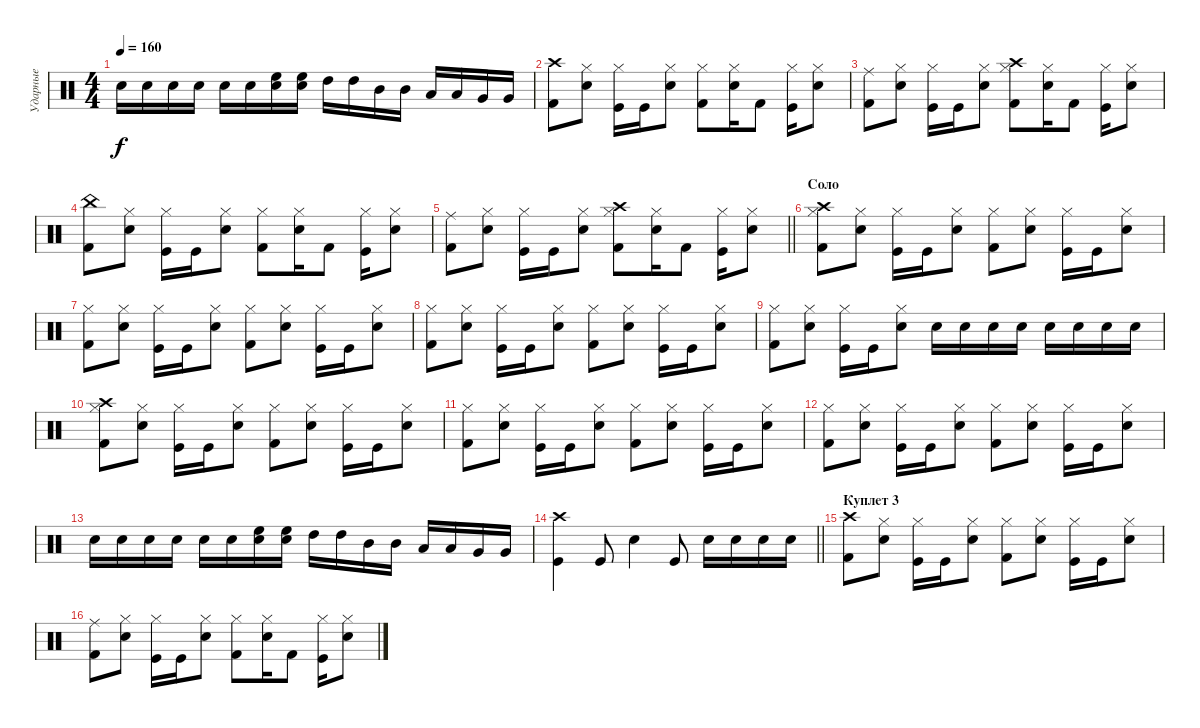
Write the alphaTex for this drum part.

\track ("Ударные" "Ударные") {instrument percussion}
\staff {score}
\articulation defaults
\ts (4 4)
\tempo 160
\clef neutral
\ks c "Snare (hit) 2".16{dy f} "Snare (hit) 2".16 "Snare (hit) 2".16 "Snare (hit) 2".16 "Snare (hit) 2".16 "Snare (hit) 2".16
("High Floor Tom (hit)" "Snare (hit) 2").16 ("High Floor Tom (hit)" "Snare (hit) 2").16 "High Tom (hit)".16 "High Tom (hit)".16 "Mid Tom (hit)".16 "Mid Tom (hit)".16 "Low Tom (hit)".16 "Low Tom (hit)".16 "Very Low Tom (hit)".16 "Very Low Tom (hit)".16 |
("Crash high (hit)" "Kick (hit) 2").8 ("Hi-Hat (closed)" "Snare (hit) 2").8 ("Hi-Hat (closed)" "Kick (hit)").16 "Kick (hit)".16 ("Hi-Hat (closed)" "Snare (hit) 2").8 ("Hi-Hat (closed)" "Kick (hit) 2").8 ("Hi-Hat (closed)" "Snare (hit) 2").16 "Kick (hit) 2".8 ("Hi-Hat (closed)" "Kick (hit)").16 ("Hi-Hat (closed)" "Snare (hit) 2").8 |
("Ride (middle)" "Kick (hit) 2").8 ("Hi-Hat (closed)" "Snare (hit) 2").8 ("Hi-Hat (closed)" "Kick (hit)").16 "Kick (hit)".16 ("Hi-Hat (closed)" "Snare (hit) 2").8 ("Crash high (hit)" "Hi-Hat (closed)" "Kick (hit) 2").8 ("Hi-Hat (closed)" "Snare (hit) 2").16 "Kick (hit) 2".8 ("Hi-Hat (closed)" "Kick (hit)").16 ("Hi-Hat (closed)" "Snare (hit) 2").8 |
("China (hit)" "Kick (hit) 2").8 ("Hi-Hat (closed)" "Snare (hit) 2").8 ("Hi-Hat (closed)" "Kick (hit)").16 "Kick (hit)".16 ("Hi-Hat (closed)" "Snare (hit) 2").8 ("Hi-Hat (closed)" "Kick (hit) 2").8 ("Hi-Hat (closed)" "Snare (hit) 2").16 "Kick (hit) 2".8 ("Hi-Hat (closed)" "Kick (hit)").16 ("Hi-Hat (closed)" "Snare (hit) 2").8 |
\barLineRight lightlight
("Ride (middle)" "Kick (hit) 2").8 ("Hi-Hat (closed)" "Snare (hit) 2").8 ("Hi-Hat (closed)" "Kick (hit)").16 "Kick (hit)".16 ("Hi-Hat (closed)" "Snare (hit) 2").8 ("Crash high (hit)" "Hi-Hat (closed)" "Kick (hit) 2").8 ("Hi-Hat (closed)" "Snare (hit) 2").16 "Kick (hit) 2".8 ("Hi-Hat (closed)" "Kick (hit)").16 ("Hi-Hat (closed)" "Snare (hit) 2").8 |
\section ("" "Соло")
("Crash high (hit)" "Hi-Hat (closed)" "Kick (hit) 2").8 ("Hi-Hat (closed)" "Snare (hit) 2").8 ("Hi-Hat (closed)" "Kick (hit)").16 "Kick (hit)".16 ("Hi-Hat (closed)" "Snare (hit) 2").8 ("Hi-Hat (closed)" "Kick (hit) 2").8 ("Hi-Hat (closed)" "Snare (hit) 2").8 ("Hi-Hat (closed)" "Kick (hit)").16 "Kick (hit)".16 ("Hi-Hat (closed)" "Snare (hit) 2").8 |
("Hi-Hat (closed)" "Kick (hit) 2").8 ("Hi-Hat (closed)" "Snare (hit) 2").8 ("Hi-Hat (closed)" "Kick (hit)").16 "Kick (hit)".16 ("Hi-Hat (closed)" "Snare (hit) 2").8 ("Hi-Hat (closed)" "Kick (hit) 2").8 ("Hi-Hat (closed)" "Snare (hit) 2").8 ("Hi-Hat (closed)" "Kick (hit)").16 "Kick (hit)".16 ("Hi-Hat (closed)" "Snare (hit) 2").8 |
("Hi-Hat (closed)" "Kick (hit) 2").8 ("Hi-Hat (closed)" "Snare (hit) 2").8 ("Hi-Hat (closed)" "Kick (hit)").16 "Kick (hit)".16 ("Hi-Hat (closed)" "Snare (hit) 2").8 ("Hi-Hat (closed)" "Kick (hit) 2").8 ("Hi-Hat (closed)" "Snare (hit) 2").8 ("Hi-Hat (closed)" "Kick (hit)").16 "Kick (hit)".16 ("Hi-Hat (closed)" "Snare (hit) 2").8 |
("Hi-Hat (closed)" "Kick (hit) 2").8 ("Hi-Hat (closed)" "Snare (hit) 2").8 ("Hi-Hat (closed)" "Kick (hit)").16 "Kick (hit)".16 ("Hi-Hat (closed)" "Snare (hit) 2").8 "Snare (hit) 2".16 "Snare (hit) 2".16 "Snare (hit) 2".16 "Snare (hit) 2".16 "Snare (hit) 2".16 "Snare (hit) 2".16 "Snare (hit) 2".16 "Snare (hit) 2".16 |
("Crash high (hit)" "Hi-Hat (closed)" "Kick (hit) 2").8 ("Hi-Hat (closed)" "Snare (hit) 2").8 ("Hi-Hat (closed)" "Kick (hit)").16 "Kick (hit)".16 ("Hi-Hat (closed)" "Snare (hit) 2").8 ("Hi-Hat (closed)" "Kick (hit) 2").8 ("Hi-Hat (closed)" "Snare (hit) 2").8 ("Hi-Hat (closed)" "Kick (hit)").16 "Kick (hit)".16 ("Hi-Hat (closed)" "Snare (hit) 2").8 |
("Hi-Hat (closed)" "Kick (hit) 2").8 ("Hi-Hat (closed)" "Snare (hit) 2").8 ("Hi-Hat (closed)" "Kick (hit)").16 "Kick (hit)".16 ("Hi-Hat (closed)" "Snare (hit) 2").8 ("Hi-Hat (closed)" "Kick (hit) 2").8 ("Hi-Hat (closed)" "Snare (hit) 2").8 ("Hi-Hat (closed)" "Kick (hit)").16 "Kick (hit)".16 ("Hi-Hat (closed)" "Snare (hit) 2").8 |
("Hi-Hat (closed)" "Kick (hit) 2").8 ("Hi-Hat (closed)" "Snare (hit) 2").8 ("Hi-Hat (closed)" "Kick (hit)").16 "Kick (hit)".16 ("Hi-Hat (closed)" "Snare (hit) 2").8 ("Hi-Hat (closed)" "Kick (hit) 2").8 ("Hi-Hat (closed)" "Snare (hit) 2").8 ("Hi-Hat (closed)" "Kick (hit)").16 "Kick (hit)".16 ("Hi-Hat (closed)" "Snare (hit) 2").8 |
"Snare (hit) 2".16 "Snare (hit) 2".16 "Snare (hit) 2".16 "Snare (hit) 2".16 "Snare (hit) 2".16 "Snare (hit) 2".16 ("High Floor Tom (hit)" "Snare (hit) 2").16 ("High Floor Tom (hit)" "Snare (hit) 2").16 "High Tom (hit)".16 "High Tom (hit)".16 "Mid Tom (hit)".16 "Mid Tom (hit)".16 "Low Tom (hit)".16 "Low Tom (hit)".16 "Very Low Tom (hit)".16 "Very Low Tom (hit)".16 |
\barLineRight lightlight
("Crash high (hit)" "Kick (hit)").4 "Kick (hit)".8 "Snare (hit) 2".4 "Kick (hit)".8 "Snare (hit) 2".16 "Snare (hit) 2".16 "Snare (hit) 2".16 "Snare (hit) 2".16 |
\section ("" "Куплет 3")
("Crash high (hit)" "Kick (hit) 2").8 ("Hi-Hat (closed)" "Snare (hit) 2").8 ("Hi-Hat (closed)" "Kick (hit)").16 "Kick (hit)".16 ("Hi-Hat (closed)" "Snare (hit) 2").8 ("Hi-Hat (closed)" "Kick (hit) 2").8 ("Hi-Hat (closed)" "Snare (hit) 2").8 ("Hi-Hat (closed)" "Kick (hit)").16 "Kick (hit)".16 ("Hi-Hat (closed)" "Snare (hit) 2").8 |
("Ride (middle)" "Kick (hit) 2").8 ("Hi-Hat (closed)" "Snare (hit) 2").8 ("Hi-Hat (closed)" "Kick (hit)").16 "Kick (hit)".16 ("Hi-Hat (closed)" "Snare (hit) 2").8 ("Hi-Hat (closed)" "Kick (hit) 2").8 ("Hi-Hat (closed)" "Snare (hit) 2").16 "Kick (hit) 2".8 ("Hi-Hat (closed)" "Kick (hit)").16 ("Hi-Hat (closed)" "Snare (hit) 2").8
